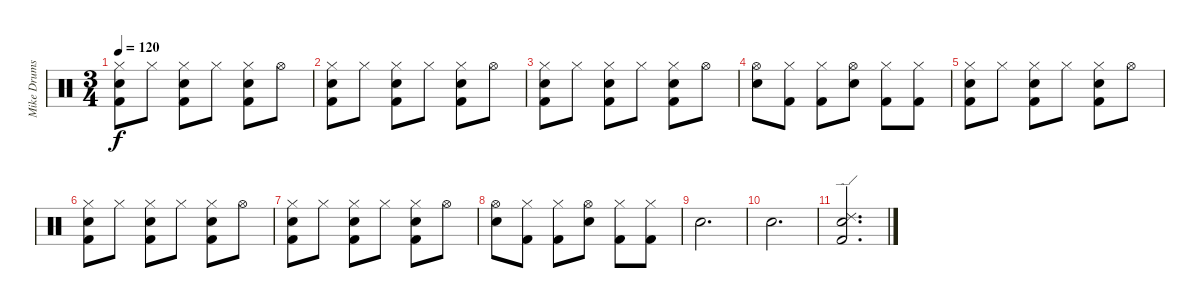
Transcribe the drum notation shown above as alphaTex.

\track ("Mike Drums" "Mike Drums") {instrument percussion}
\staff {score}
\articulation defaults
\ts (3 4)
\tempo 120
\clef neutral
\ks c
("Hi-Hat (closed)" "Snare (hit) 2" "Kick (hit) 2").8{dy f} "Hi-Hat (closed)".8 ("Hi-Hat (closed)" "Snare (hit) 2" "Kick (hit) 2").8 "Hi-Hat (closed)".8 ("Hi-Hat (closed)" "Snare (hit) 2" "Kick (hit) 2").8 "Hi-Hat (open)".8 |
("Hi-Hat (closed)" "Snare (hit) 2" "Kick (hit) 2").8 "Hi-Hat (closed)".8 ("Hi-Hat (closed)" "Snare (hit) 2" "Kick (hit) 2").8 "Hi-Hat (closed)".8 ("Hi-Hat (closed)" "Snare (hit) 2" "Kick (hit) 2").8 "Hi-Hat (open)".8 |
("Hi-Hat (closed)" "Snare (hit) 2" "Kick (hit) 2").8 "Hi-Hat (closed)".8 ("Hi-Hat (closed)" "Snare (hit) 2" "Kick (hit) 2").8 "Hi-Hat (closed)".8 ("Hi-Hat (closed)" "Snare (hit) 2" "Kick (hit) 2").8 "Hi-Hat (open)".8 |
("Hi-Hat (open)" "Electric Snare (hit)").8 ("Hi-Hat (closed)" "Kick (hit) 2").8 ("Hi-Hat (closed)" "Kick (hit) 2").8 ("Hi-Hat (open)" "Electric Snare (hit)").8 ("Hi-Hat (closed)" "Kick (hit) 2").8 ("Hi-Hat (closed)" "Kick (hit) 2").8 |
("Hi-Hat (closed)" "Snare (hit) 2" "Kick (hit) 2").8 "Hi-Hat (closed)".8 ("Hi-Hat (closed)" "Snare (hit) 2" "Kick (hit) 2").8 "Hi-Hat (closed)".8 ("Hi-Hat (closed)" "Snare (hit) 2" "Kick (hit) 2").8 "Hi-Hat (open)".8 |
("Hi-Hat (closed)" "Snare (hit) 2" "Kick (hit) 2").8 "Hi-Hat (closed)".8 ("Hi-Hat (closed)" "Snare (hit) 2" "Kick (hit) 2").8 "Hi-Hat (closed)".8 ("Hi-Hat (closed)" "Snare (hit) 2" "Kick (hit) 2").8 "Hi-Hat (open)".8 |
("Hi-Hat (closed)" "Snare (hit) 2" "Kick (hit) 2").8 "Hi-Hat (closed)".8 ("Hi-Hat (closed)" "Snare (hit) 2" "Kick (hit) 2").8 "Hi-Hat (closed)".8 ("Hi-Hat (closed)" "Snare (hit) 2" "Kick (hit) 2").8 "Hi-Hat (open)".8 |
("Hi-Hat (open)" "Electric Snare (hit)").8 ("Hi-Hat (closed)" "Kick (hit) 2").8 ("Hi-Hat (closed)" "Kick (hit) 2").8 ("Hi-Hat (open)" "Electric Snare (hit)").8 ("Hi-Hat (closed)" "Kick (hit) 2").8 ("Hi-Hat (closed)" "Kick (hit) 2").8 |
"Electric Snare (hit)".2{d} |
"Electric Snare (hit)".2{d} |
("Ride (edge) 2" "Electric Snare (hit)" "Kick (hit) 2").2{d}
